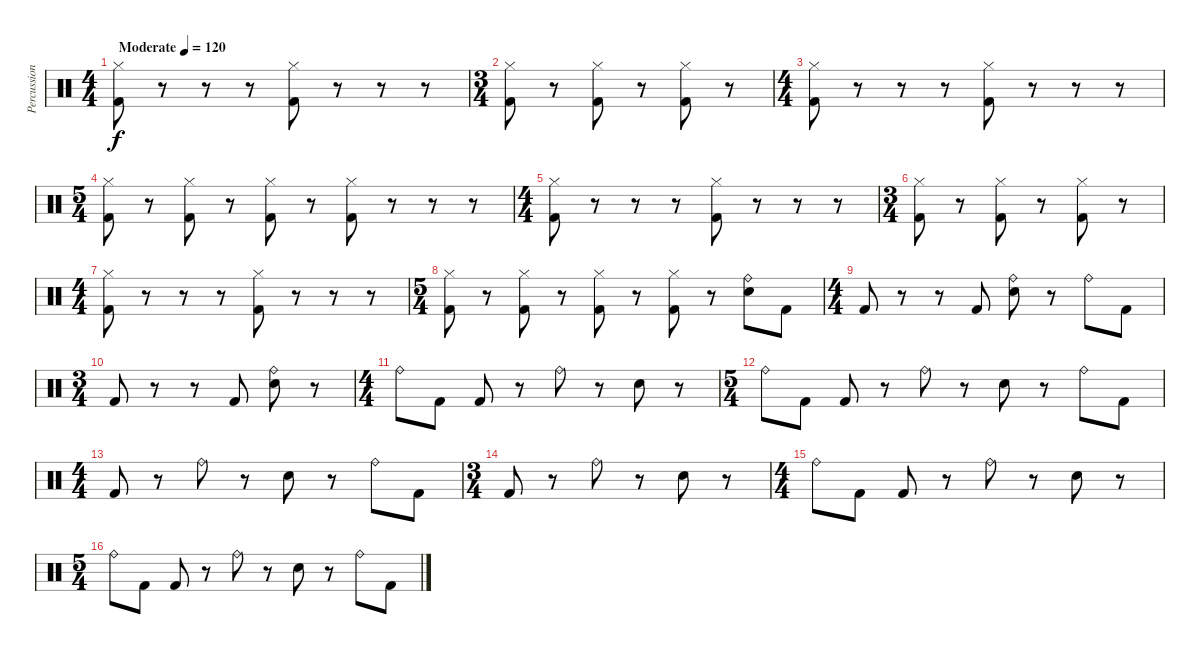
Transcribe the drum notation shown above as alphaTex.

\track ("Percussion" "Percussion") {instrument percussion}
\staff {score}
\articulation defaults
\ts (4 4)
\tempo (120 "Moderate")
\clef neutral
\ks c
("Hi-Hat (closed)" "Kick (hit) 2").8{dy f} r.8 r.8 r.8 ("Hi-Hat (closed)" "Kick (hit) 2").8 r.8 r.8 r.8 |
\ts (3 4)
("Hi-Hat (closed)" "Kick (hit) 2").8 r.8 ("Hi-Hat (closed)" "Kick (hit) 2").8 r.8 ("Hi-Hat (closed)" "Kick (hit) 2").8 r.8 |
\ts (4 4)
("Hi-Hat (closed)" "Kick (hit) 2").8 r.8 r.8 r.8 ("Hi-Hat (closed)" "Kick (hit) 2").8 r.8 r.8 r.8 |
\ts (5 4)
("Hi-Hat (closed)" "Kick (hit) 2").8 r.8 ("Hi-Hat (closed)" "Kick (hit) 2").8 r.8 ("Hi-Hat (closed)" "Kick (hit) 2").8 r.8 ("Hi-Hat (closed)" "Kick (hit) 2").8 r.8 r.8 r.8 |
\ts (4 4)
("Hi-Hat (closed)" "Kick (hit) 2").8 r.8 r.8 r.8 ("Hi-Hat (closed)" "Kick (hit) 2").8 r.8 r.8 r.8 |
\ts (3 4)
("Hi-Hat (closed)" "Kick (hit) 2").8 r.8 ("Hi-Hat (closed)" "Kick (hit) 2").8 r.8 ("Hi-Hat (closed)" "Kick (hit) 2").8 r.8 |
\ts (4 4)
("Hi-Hat (closed)" "Kick (hit) 2").8 r.8 r.8 r.8 ("Hi-Hat (closed)" "Kick (hit) 2").8 r.8 r.8 r.8 |
\ts (5 4)
("Hi-Hat (closed)" "Kick (hit) 2").8 r.8 ("Hi-Hat (closed)" "Kick (hit) 2").8 r.8 ("Hi-Hat (closed)" "Kick (hit) 2").8 r.8 ("Hi-Hat (closed)" "Kick (hit) 2").8 r.8 ("Ride (bell)" "Electric Snare (hit)").8 "Kick (hit) 2".8 |
\ts (4 4)
"Kick (hit) 2".8 r.8 r.8 "Kick (hit) 2".8 ("Ride (bell)" "Electric Snare (hit)").8 r.8 "Ride (bell)".8 "Kick (hit) 2".8 |
\ts (3 4)
"Kick (hit) 2".8 r.8 r.8 "Kick (hit) 2".8 ("Ride (bell)" "Electric Snare (hit)").8 r.8 |
\ts (4 4)
"Ride (bell)".8 "Kick (hit) 2".8 "Kick (hit) 2".8 r.8 "Ride (bell)".8 r.8 "Electric Snare (hit)".8 r.8 |
\ts (5 4)
"Ride (bell)".8 "Kick (hit) 2".8 "Kick (hit) 2".8 r.8 "Ride (bell)".8 r.8 "Electric Snare (hit)".8 r.8 "Ride (bell)".8 "Kick (hit) 2".8 |
\ts (4 4)
"Kick (hit) 2".8 r.8 "Ride (bell)".8 r.8 "Electric Snare (hit)".8 r.8 "Ride (bell)".8 "Kick (hit) 2".8 |
\ts (3 4)
"Kick (hit) 2".8 r.8 "Ride (bell)".8 r.8 "Electric Snare (hit)".8 r.8 |
\ts (4 4)
"Ride (bell)".8 "Kick (hit) 2".8 "Kick (hit) 2".8 r.8 "Ride (bell)".8 r.8 "Electric Snare (hit)".8 r.8 |
\ts (5 4)
"Ride (bell)".8 "Kick (hit) 2".8 "Kick (hit) 2".8 r.8 "Ride (bell)".8 r.8 "Electric Snare (hit)".8 r.8 "Ride (bell)".8 "Kick (hit) 2".8
